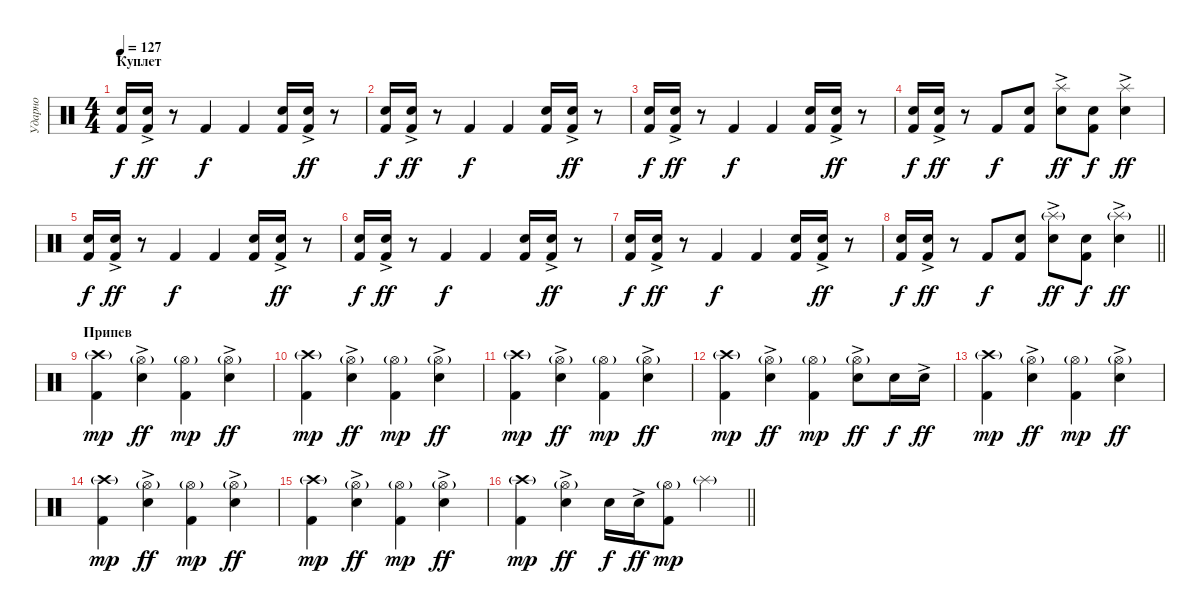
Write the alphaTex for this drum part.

\track ("Ударно" "Ударно") {instrument percussion}
\staff {score}
\articulation defaults
\ts (4 4)
\section ("" "Куплет")
\tempo 127
\clef neutral
\ks c
("Electric Snare (hit)" "Kick (hit) 2").16{dy f} ("Electric Snare (hit)"{ac} "Kick (hit) 2").16{dy ff} r.8 "Kick (hit) 2".4{dy f} "Kick (hit) 2".4 ("Electric Snare (hit)" "Kick (hit) 2").16 ("Electric Snare (hit)"{ac} "Kick (hit) 2").16{dy ff} r.8 |
("Electric Snare (hit)" "Kick (hit) 2").16{dy f} ("Electric Snare (hit)"{ac} "Kick (hit) 2").16{dy ff} r.8 "Kick (hit) 2".4{dy f} "Kick (hit) 2".4 ("Electric Snare (hit)" "Kick (hit) 2").16 ("Electric Snare (hit)"{ac} "Kick (hit) 2").16{dy ff} r.8 |
("Electric Snare (hit)" "Kick (hit) 2").16{dy f} ("Electric Snare (hit)"{ac} "Kick (hit) 2").16{dy ff} r.8 "Kick (hit) 2".4{dy f} "Kick (hit) 2".4 ("Electric Snare (hit)" "Kick (hit) 2").16 ("Electric Snare (hit)"{ac} "Kick (hit) 2").16{dy ff} r.8 |
("Electric Snare (hit)" "Kick (hit) 2").16{dy f} ("Electric Snare (hit)"{ac} "Kick (hit) 2").16{dy ff} r.8 "Kick (hit) 2".8{dy f} ("Electric Snare (hit)" "Kick (hit) 2").8 ("Splash (hit)"{ac} "Electric Snare (hit)"{ac}).8{dy ff} ("Electric Snare (hit)" "Kick (hit) 2").8{dy f} ("Splash (hit)"{ac} "Electric Snare (hit)"{ac}).4{dy ff} |
("Electric Snare (hit)" "Kick (hit) 2").16{dy f} ("Electric Snare (hit)"{ac} "Kick (hit) 2").16{dy ff} r.8 "Kick (hit) 2".4{dy f} "Kick (hit) 2".4 ("Electric Snare (hit)" "Kick (hit) 2").16 ("Electric Snare (hit)"{ac} "Kick (hit) 2").16{dy ff} r.8 |
("Electric Snare (hit)" "Kick (hit) 2").16{dy f} ("Electric Snare (hit)"{ac} "Kick (hit) 2").16{dy ff} r.8 "Kick (hit) 2".4{dy f} "Kick (hit) 2".4 ("Electric Snare (hit)" "Kick (hit) 2").16 ("Electric Snare (hit)"{ac} "Kick (hit) 2").16{dy ff} r.8 |
("Electric Snare (hit)" "Kick (hit) 2").16{dy f} ("Electric Snare (hit)"{ac} "Kick (hit) 2").16{dy ff} r.8 "Kick (hit) 2".4{dy f} "Kick (hit) 2".4 ("Electric Snare (hit)" "Kick (hit) 2").16 ("Electric Snare (hit)"{ac} "Kick (hit) 2").16{dy ff} r.8 |
\barLineRight lightlight
("Electric Snare (hit)" "Kick (hit) 2").16{dy f} ("Electric Snare (hit)"{ac} "Kick (hit) 2").16{dy ff} r.8 "Kick (hit) 2".8{dy f} ("Electric Snare (hit)" "Kick (hit) 2").8 ("Splash (hit)"{g} "Electric Snare (hit)"{ac}).8{dy ff} ("Electric Snare (hit)" "Kick (hit) 2").8{dy f} ("Splash (hit)"{g} "Electric Snare (hit)"{ac}).4{dy ff} |
\section ("" "Припев")
("Crash high (hit)"{g} "Kick (hit) 2").4{dy mp} ("Hi-Hat (open)"{g} "Electric Snare (hit)"{ac}).4{dy ff} ("Hi-Hat (open)"{g} "Kick (hit) 2").4{dy mp} ("Hi-Hat (open)"{g} "Electric Snare (hit)"{ac}).4{dy ff} |
("Crash high (hit)"{g} "Kick (hit) 2").4{dy mp} ("Hi-Hat (open)"{g} "Electric Snare (hit)"{ac}).4{dy ff} ("Hi-Hat (open)"{g} "Kick (hit) 2").4{dy mp} ("Hi-Hat (open)"{g} "Electric Snare (hit)"{ac}).4{dy ff} |
("Crash high (hit)"{g} "Kick (hit) 2").4{dy mp} ("Hi-Hat (open)"{g} "Electric Snare (hit)"{ac}).4{dy ff} ("Hi-Hat (open)"{g} "Kick (hit) 2").4{dy mp} ("Hi-Hat (open)"{g} "Electric Snare (hit)"{ac}).4{dy ff} |
("Crash high (hit)"{g} "Kick (hit) 2").4{dy mp} ("Hi-Hat (open)"{g} "Electric Snare (hit)"{ac}).4{dy ff} ("Hi-Hat (open)"{g} "Kick (hit) 2").4{dy mp} ("Hi-Hat (open)"{g} "Electric Snare (hit)"{ac}).8{dy ff} "Electric Snare (hit)".16{dy f} "Electric Snare (hit)"{ac}.16{dy ff} |
("Crash high (hit)"{g} "Kick (hit) 2").4{dy mp} ("Hi-Hat (open)"{g} "Electric Snare (hit)"{ac}).4{dy ff} ("Hi-Hat (open)"{g} "Kick (hit) 2").4{dy mp} ("Hi-Hat (open)"{g} "Electric Snare (hit)"{ac}).4{dy ff} |
("Crash high (hit)"{g} "Kick (hit) 2").4{dy mp} ("Hi-Hat (open)"{g} "Electric Snare (hit)"{ac}).4{dy ff} ("Hi-Hat (open)"{g} "Kick (hit) 2").4{dy mp} ("Hi-Hat (open)"{g} "Electric Snare (hit)"{ac}).4{dy ff} |
("Crash high (hit)"{g} "Kick (hit) 2").4{dy mp} ("Hi-Hat (open)"{g} "Electric Snare (hit)"{ac}).4{dy ff} ("Hi-Hat (open)"{g} "Kick (hit) 2").4{dy mp} ("Hi-Hat (open)"{g} "Electric Snare (hit)"{ac}).4{dy ff} |
\barLineRight lightlight
("Crash high (hit)"{g} "Kick (hit) 2").4{dy mp} ("Hi-Hat (open)"{g} "Electric Snare (hit)"{ac}).4{dy ff} "Electric Snare (hit)".16{dy f} "Electric Snare (hit)"{ac}.16{dy ff} ("Hi-Hat (open)"{g} "Kick (hit) 2").8{dy mp} "Splash (hit)"{g}.4
